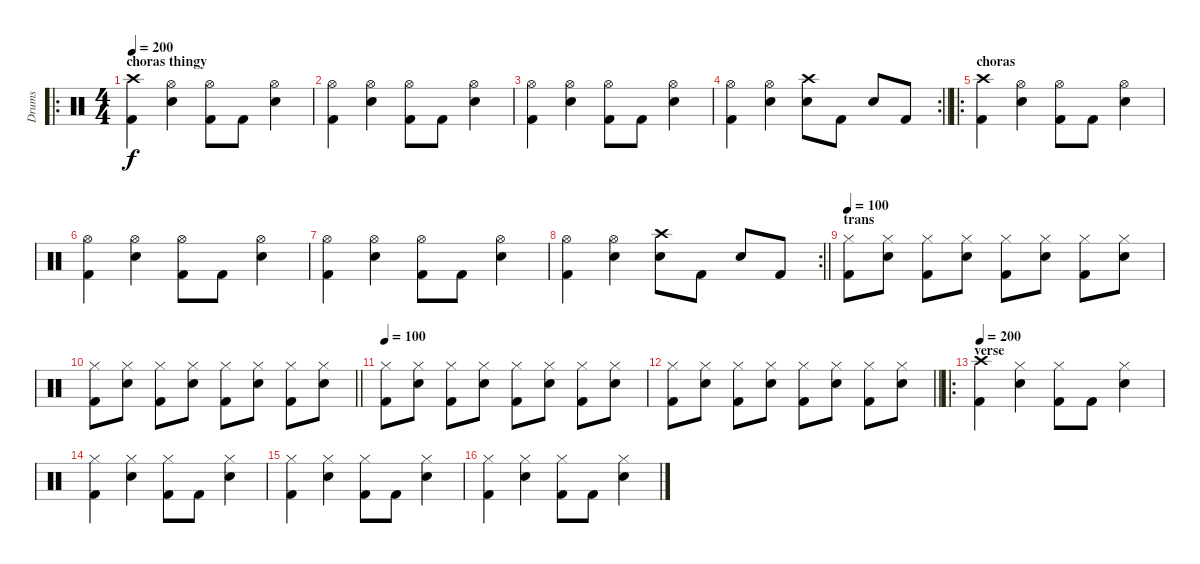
\track ("Drums" "Drums") {instrument percussion}
\staff {score}
\articulation defaults
\ro
\ts (4 4)
\section ("" "choras thingy")
\tempo 200
\clef neutral
\ks c
("Crash high (hit)" "Kick (hit) 2").4{dy f} ("Hi-Hat (open)" "Electric Snare (hit)").4 ("Hi-Hat (open)" "Kick (hit) 2").8 "Kick (hit) 2".8 ("Hi-Hat (open)" "Electric Snare (hit)").4 |
("Hi-Hat (open)" "Kick (hit) 2").4 ("Hi-Hat (open)" "Electric Snare (hit)").4 ("Hi-Hat (open)" "Kick (hit) 2").8 "Kick (hit) 2".8 ("Hi-Hat (open)" "Electric Snare (hit)").4 |
("Hi-Hat (open)" "Kick (hit) 2").4 ("Hi-Hat (open)" "Electric Snare (hit)").4 ("Hi-Hat (open)" "Kick (hit) 2").8 "Kick (hit) 2".8 ("Hi-Hat (open)" "Electric Snare (hit)").4 |
\rc 2
\barLineRight lightlight
("Hi-Hat (open)" "Kick (hit) 2").4 ("Hi-Hat (open)" "Electric Snare (hit)").4 ("Crash high (hit)" "Electric Snare (hit)").8 "Kick (hit) 2".8 "Electric Snare (hit)".8 "Kick (hit) 2".8 |
\ro
\section ("" "choras")
("Crash high (hit)" "Kick (hit) 2").4 ("Hi-Hat (open)" "Electric Snare (hit)").4 ("Hi-Hat (open)" "Kick (hit) 2").8 "Kick (hit) 2".8 ("Hi-Hat (open)" "Electric Snare (hit)").4 |
("Hi-Hat (open)" "Kick (hit) 2").4 ("Hi-Hat (open)" "Electric Snare (hit)").4 ("Hi-Hat (open)" "Kick (hit) 2").8 "Kick (hit) 2".8 ("Hi-Hat (open)" "Electric Snare (hit)").4 |
("Hi-Hat (open)" "Kick (hit) 2").4 ("Hi-Hat (open)" "Electric Snare (hit)").4 ("Hi-Hat (open)" "Kick (hit) 2").8 "Kick (hit) 2".8 ("Hi-Hat (open)" "Electric Snare (hit)").4 |
\rc 2
\barLineRight lightlight
("Hi-Hat (open)" "Kick (hit) 2").4 ("Hi-Hat (open)" "Electric Snare (hit)").4 ("Crash high (hit)" "Electric Snare (hit)").8 "Kick (hit) 2".8 "Electric Snare (hit)".8 "Kick (hit) 2".8 |
\section ("" "trans")
\tempo 100
("Hi-Hat (closed)" "Kick (hit) 2").8 ("Hi-Hat (closed)" "Electric Snare (hit)").8 ("Hi-Hat (closed)" "Kick (hit) 2").8 ("Hi-Hat (closed)" "Electric Snare (hit)").8 ("Hi-Hat (closed)" "Kick (hit) 2").8 ("Hi-Hat (closed)" "Electric Snare (hit)").8 ("Hi-Hat (closed)" "Kick (hit) 2").8 ("Hi-Hat (closed)" "Electric Snare (hit)").8 |
\barLineRight lightlight
("Hi-Hat (closed)" "Kick (hit) 2").8 ("Hi-Hat (closed)" "Electric Snare (hit)").8 ("Hi-Hat (closed)" "Kick (hit) 2").8 ("Hi-Hat (closed)" "Electric Snare (hit)").8 ("Hi-Hat (closed)" "Kick (hit) 2").8 ("Hi-Hat (closed)" "Electric Snare (hit)").8 ("Hi-Hat (closed)" "Kick (hit) 2").8 ("Hi-Hat (closed)" "Electric Snare (hit)").8 |
\tempo 100
("Hi-Hat (closed)" "Kick (hit) 2").8 ("Hi-Hat (closed)" "Electric Snare (hit)").8 ("Hi-Hat (closed)" "Kick (hit) 2").8 ("Hi-Hat (closed)" "Electric Snare (hit)").8 ("Hi-Hat (closed)" "Kick (hit) 2").8 ("Hi-Hat (closed)" "Electric Snare (hit)").8 ("Hi-Hat (closed)" "Kick (hit) 2").8 ("Hi-Hat (closed)" "Electric Snare (hit)").8 |
\barLineRight lightlight
("Hi-Hat (closed)" "Kick (hit) 2").8 ("Hi-Hat (closed)" "Electric Snare (hit)").8 ("Hi-Hat (closed)" "Kick (hit) 2").8 ("Hi-Hat (closed)" "Electric Snare (hit)").8 ("Hi-Hat (closed)" "Kick (hit) 2").8 ("Hi-Hat (closed)" "Electric Snare (hit)").8 ("Hi-Hat (closed)" "Kick (hit) 2").8 ("Hi-Hat (closed)" "Electric Snare (hit)").8 |
\ro
\section ("" "verse")
\tempo 200
("Crash high (hit)" "Kick (hit) 2").4 ("Hi-Hat (closed)" "Electric Snare (hit)").4 ("Hi-Hat (closed)" "Kick (hit) 2").8 "Kick (hit) 2".8 ("Hi-Hat (closed)" "Electric Snare (hit)").4 |
("Hi-Hat (closed)" "Kick (hit) 2").4 ("Hi-Hat (closed)" "Electric Snare (hit)").4 ("Hi-Hat (closed)" "Kick (hit) 2").8 "Kick (hit) 2".8 ("Hi-Hat (closed)" "Electric Snare (hit)").4 |
("Hi-Hat (closed)" "Kick (hit) 2").4 ("Hi-Hat (closed)" "Electric Snare (hit)").4 ("Hi-Hat (closed)" "Kick (hit) 2").8 "Kick (hit) 2".8 ("Hi-Hat (closed)" "Electric Snare (hit)").4 |
("Hi-Hat (closed)" "Kick (hit) 2").4 ("Hi-Hat (closed)" "Electric Snare (hit)").4 ("Hi-Hat (closed)" "Kick (hit) 2").8 "Kick (hit) 2".8 ("Hi-Hat (closed)" "Electric Snare (hit)").4
